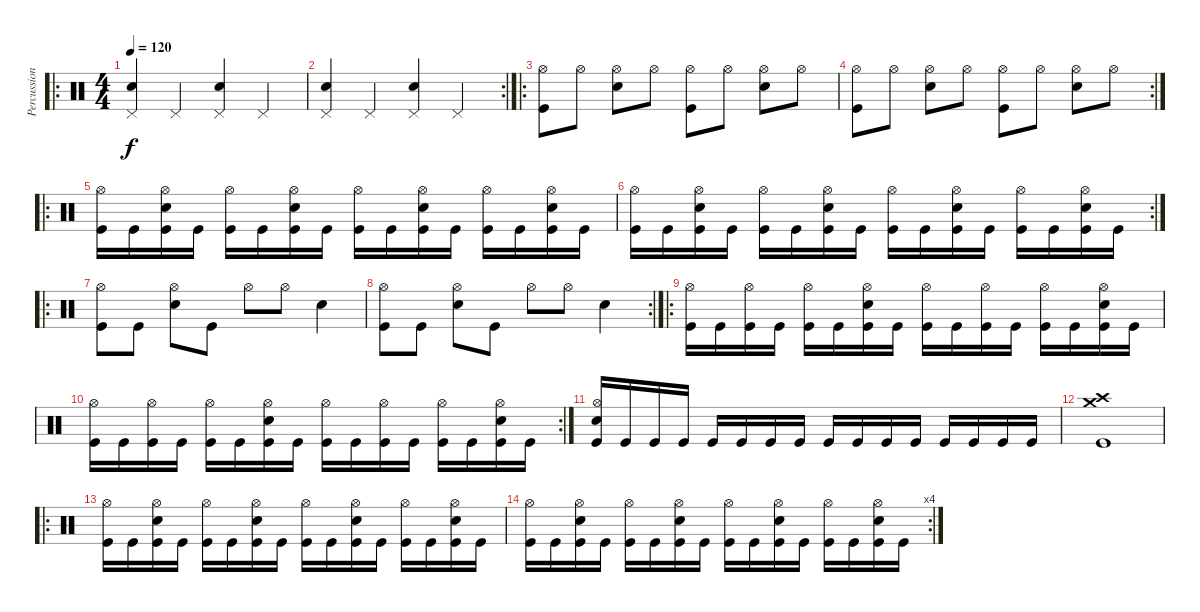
\track ("Percussion" "Percussion") {instrument percussion}
\staff {score}
\articulation defaults
\ro
\ts (4 4)
\tempo 120
\clef neutral
\ks c
("Pedal Hi-Hat (hit)" "Snare (hit) 2").4{dy f} "Pedal Hi-Hat (hit)".4 ("Pedal Hi-Hat (hit)" "Snare (hit) 2").4 "Pedal Hi-Hat (hit)".4 |
\rc 2
("Pedal Hi-Hat (hit)" "Snare (hit) 2").4 "Pedal Hi-Hat (hit)".4 ("Pedal Hi-Hat (hit)" "Snare (hit) 2").4 "Pedal Hi-Hat (hit)".4 |
\ro
("Hi-Hat (open)" "Kick (hit)").8 "Hi-Hat (open)".8 ("Hi-Hat (open)" "Snare (hit) 2").8 "Hi-Hat (open)".8 ("Hi-Hat (open)" "Kick (hit)").8 "Hi-Hat (open)".8 ("Hi-Hat (open)" "Snare (hit) 2").8 "Hi-Hat (open)".8 |
\rc 2
("Hi-Hat (open)" "Kick (hit)").8 "Hi-Hat (open)".8 ("Hi-Hat (open)" "Snare (hit) 2").8 "Hi-Hat (open)".8 ("Hi-Hat (open)" "Kick (hit)").8 "Hi-Hat (open)".8 ("Hi-Hat (open)" "Snare (hit) 2").8 "Hi-Hat (open)".8 |
\ro
("Hi-Hat (open)" "Kick (hit)").16 "Kick (hit)".16 ("Hi-Hat (open)" "Snare (hit) 2" "Kick (hit)").16 "Kick (hit)".16 ("Hi-Hat (open)" "Kick (hit)").16 "Kick (hit)".16 ("Hi-Hat (open)" "Snare (hit) 2" "Kick (hit)").16 "Kick (hit)".16 ("Hi-Hat (open)" "Kick (hit)").16 "Kick (hit)".16 ("Hi-Hat (open)" "Snare (hit) 2" "Kick (hit)").16 "Kick (hit)".16 ("Hi-Hat (open)" "Kick (hit)").16 "Kick (hit)".16 ("Hi-Hat (open)" "Snare (hit) 2" "Kick (hit)").16 "Kick (hit)".16 |
\rc 2
("Hi-Hat (open)" "Kick (hit)").16 "Kick (hit)".16 ("Hi-Hat (open)" "Snare (hit) 2" "Kick (hit)").16 "Kick (hit)".16 ("Hi-Hat (open)" "Kick (hit)").16 "Kick (hit)".16 ("Hi-Hat (open)" "Snare (hit) 2" "Kick (hit)").16 "Kick (hit)".16 ("Hi-Hat (open)" "Kick (hit)").16 "Kick (hit)".16 ("Hi-Hat (open)" "Snare (hit) 2" "Kick (hit)").16 "Kick (hit)".16 ("Hi-Hat (open)" "Kick (hit)").16 "Kick (hit)".16 ("Hi-Hat (open)" "Snare (hit) 2" "Kick (hit)").16 "Kick (hit)".16 |
\ro
("Hi-Hat (open)" "Kick (hit)").8 "Kick (hit)".8 ("Hi-Hat (open)" "Snare (hit) 2").8 "Kick (hit)".8 "Hi-Hat (open)".8 "Hi-Hat (open)".8 "Snare (hit) 2".4 |
\rc 2
("Hi-Hat (open)" "Kick (hit)").8 "Kick (hit)".8 ("Hi-Hat (open)" "Snare (hit) 2").8 "Kick (hit)".8 "Hi-Hat (open)".8 "Hi-Hat (open)".8 "Snare (hit) 2".4 |
\ro
("Hi-Hat (open)" "Kick (hit)").16 "Kick (hit)".16 ("Hi-Hat (open)" "Kick (hit)").16 "Kick (hit)".16 ("Hi-Hat (open)" "Kick (hit)").16 "Kick (hit)".16 ("Hi-Hat (open)" "Snare (hit) 2" "Kick (hit)").16 "Kick (hit)".16 ("Hi-Hat (open)" "Kick (hit)").16 "Kick (hit)".16 ("Hi-Hat (open)" "Kick (hit)").16 "Kick (hit)".16 ("Hi-Hat (open)" "Kick (hit)").16 "Kick (hit)".16 ("Hi-Hat (open)" "Snare (hit) 2" "Kick (hit)").16 "Kick (hit)".16 |
\rc 2
("Hi-Hat (open)" "Kick (hit)").16 "Kick (hit)".16 ("Hi-Hat (open)" "Kick (hit)").16 "Kick (hit)".16 ("Hi-Hat (open)" "Kick (hit)").16 "Kick (hit)".16 ("Hi-Hat (open)" "Snare (hit) 2" "Kick (hit)").16 "Kick (hit)".16 ("Hi-Hat (open)" "Kick (hit)").16 "Kick (hit)".16 ("Hi-Hat (open)" "Kick (hit)").16 "Kick (hit)".16 ("Hi-Hat (open)" "Kick (hit)").16 "Kick (hit)".16 ("Hi-Hat (open)" "Snare (hit) 2" "Kick (hit)").16 "Kick (hit)".16 |
("Hi-Hat (open)" "Snare (hit) 2" "Kick (hit)").16 "Kick (hit)".16 "Kick (hit)".16 "Kick (hit)".16 "Kick (hit)".16 "Kick (hit)".16 "Kick (hit)".16 "Kick (hit)".16 "Kick (hit)".16 "Kick (hit)".16 "Kick (hit)".16 "Kick (hit)".16 "Kick (hit)".16 "Kick (hit)".16 "Kick (hit)".16 "Kick (hit)".16 |
("Crash medium (hit)" "Crash high (hit)" "Kick (hit)").1 |
\ro
("Hi-Hat (open)" "Kick (hit)").16 "Kick (hit)".16 ("Hi-Hat (open)" "Snare (hit) 2" "Kick (hit)").16 "Kick (hit)".16 ("Hi-Hat (open)" "Kick (hit)").16 "Kick (hit)".16 ("Hi-Hat (open)" "Snare (hit) 2" "Kick (hit)").16 "Kick (hit)".16 ("Hi-Hat (open)" "Kick (hit)").16 "Kick (hit)".16 ("Hi-Hat (open)" "Snare (hit) 2" "Kick (hit)").16 "Kick (hit)".16 ("Hi-Hat (open)" "Kick (hit)").16 "Kick (hit)".16 ("Hi-Hat (open)" "Snare (hit) 2" "Kick (hit)").16 "Kick (hit)".16 |
\rc 4
("Hi-Hat (open)" "Kick (hit)").16 "Kick (hit)".16 ("Hi-Hat (open)" "Snare (hit) 2" "Kick (hit)").16 "Kick (hit)".16 ("Hi-Hat (open)" "Kick (hit)").16 "Kick (hit)".16 ("Hi-Hat (open)" "Snare (hit) 2" "Kick (hit)").16 "Kick (hit)".16 ("Hi-Hat (open)" "Kick (hit)").16 "Kick (hit)".16 ("Hi-Hat (open)" "Snare (hit) 2" "Kick (hit)").16 "Kick (hit)".16 ("Hi-Hat (open)" "Kick (hit)").16 "Kick (hit)".16 ("Hi-Hat (open)" "Snare (hit) 2" "Kick (hit)").16 "Kick (hit)".16
